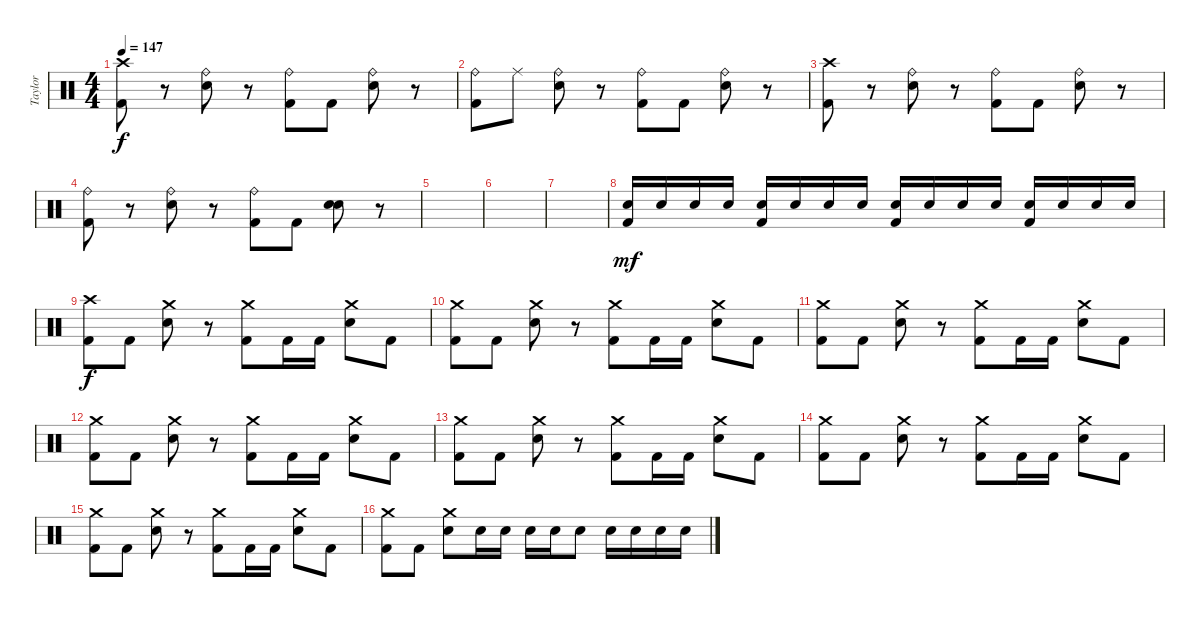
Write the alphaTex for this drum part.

\track ("Taylor" "Taylor") {instrument percussion}
\staff {score}
\articulation defaults
\ts (4 4)
\tempo 147
\clef neutral
\ks c
("Crash high (hit)" "Kick (hit) 2").8{dy f} r.8 ("Ride (bell)" "Electric Snare (hit)").8 r.8 ("Ride (bell)" "Kick (hit) 2").8 "Kick (hit) 2".8 ("Ride (bell)" "Electric Snare (hit)").8 r.8 |
("Ride (bell)" "Kick (hit) 2").8 "Ride (middle)".8 ("Ride (bell)" "Electric Snare (hit)").8 r.8 ("Ride (bell)" "Kick (hit) 2").8 "Kick (hit) 2".8 ("Ride (bell)" "Electric Snare (hit)").8 r.8 |
("Crash high (hit)" "Kick (hit) 2").8 r.8 ("Ride (bell)" "Electric Snare (hit)").8 r.8 ("Ride (bell)" "Kick (hit) 2").8 "Kick (hit) 2".8 ("Ride (bell)" "Electric Snare (hit)").8 r.8 |
("Ride (bell)" "Kick (hit) 2").8 r.8 ("Ride (bell)" "Electric Snare (hit)").8 r.8 ("Ride (bell)" "Kick (hit) 2").8 "Kick (hit) 2".8 ("Electric Snare (hit)" "Electric Snare (hit)").8{bd 240} r.8 |
|
|
|
("Electric Snare (hit)" "Kick (hit) 2").16{dy mf} "Electric Snare (hit)".16 "Electric Snare (hit)".16 "Electric Snare (hit)".16 ("Electric Snare (hit)" "Kick (hit) 2").16 "Electric Snare (hit)".16 "Electric Snare (hit)".16 "Electric Snare (hit)".16 ("Electric Snare (hit)" "Kick (hit) 2").16 "Electric Snare (hit)".16 "Electric Snare (hit)".16 "Electric Snare (hit)".16 ("Electric Snare (hit)" "Kick (hit) 2").16 "Electric Snare (hit)".16 "Electric Snare (hit)".16 "Electric Snare (hit)".16 |
("Crash high (hit)" "Kick (hit) 2").8{dy f} "Kick (hit) 2".8 ("Crash medium (hit)" "Electric Snare (hit)").8 r.8 ("Crash medium (hit)" "Kick (hit) 2").8 "Kick (hit) 2".16 "Kick (hit) 2".16 ("Crash medium (hit)" "Electric Snare (hit)").8 "Kick (hit) 2".8 |
("Crash medium (hit)" "Kick (hit) 2").8 "Kick (hit) 2".8 ("Crash medium (hit)" "Electric Snare (hit)").8 r.8 ("Crash medium (hit)" "Kick (hit) 2").8 "Kick (hit) 2".16 "Kick (hit) 2".16 ("Crash medium (hit)" "Electric Snare (hit)").8 "Kick (hit) 2".8 |
("Crash medium (hit)" "Kick (hit) 2").8 "Kick (hit) 2".8 ("Crash medium (hit)" "Electric Snare (hit)").8 r.8 ("Crash medium (hit)" "Kick (hit) 2").8 "Kick (hit) 2".16 "Kick (hit) 2".16 ("Crash medium (hit)" "Electric Snare (hit)").8 "Kick (hit) 2".8 |
("Crash medium (hit)" "Kick (hit) 2").8 "Kick (hit) 2".8 ("Crash medium (hit)" "Electric Snare (hit)").8 r.8 ("Crash medium (hit)" "Kick (hit) 2").8 "Kick (hit) 2".16 "Kick (hit) 2".16 ("Crash medium (hit)" "Electric Snare (hit)").8 "Kick (hit) 2".8 |
("Crash medium (hit)" "Kick (hit) 2").8 "Kick (hit) 2".8 ("Crash medium (hit)" "Electric Snare (hit)").8 r.8 ("Crash medium (hit)" "Kick (hit) 2").8 "Kick (hit) 2".16 "Kick (hit) 2".16 ("Crash medium (hit)" "Electric Snare (hit)").8 "Kick (hit) 2".8 |
("Crash medium (hit)" "Kick (hit) 2").8 "Kick (hit) 2".8 ("Crash medium (hit)" "Electric Snare (hit)").8 r.8 ("Crash medium (hit)" "Kick (hit) 2").8 "Kick (hit) 2".16 "Kick (hit) 2".16 ("Crash medium (hit)" "Electric Snare (hit)").8 "Kick (hit) 2".8 |
("Crash medium (hit)" "Kick (hit) 2").8 "Kick (hit) 2".8 ("Crash medium (hit)" "Electric Snare (hit)").8 r.8 ("Crash medium (hit)" "Kick (hit) 2").8 "Kick (hit) 2".16 "Kick (hit) 2".16 ("Crash medium (hit)" "Electric Snare (hit)").8 "Kick (hit) 2".8 |
("Crash medium (hit)" "Kick (hit) 2").8 "Kick (hit) 2".8 ("Crash medium (hit)" "Electric Snare (hit)").8 "Electric Snare (hit)".16 "Electric Snare (hit)".16 "Electric Snare (hit)".16 "Electric Snare (hit)".16 "Electric Snare (hit)".8 "Electric Snare (hit)".16 "Electric Snare (hit)".16 "Electric Snare (hit)".16 "Electric Snare (hit)".16
